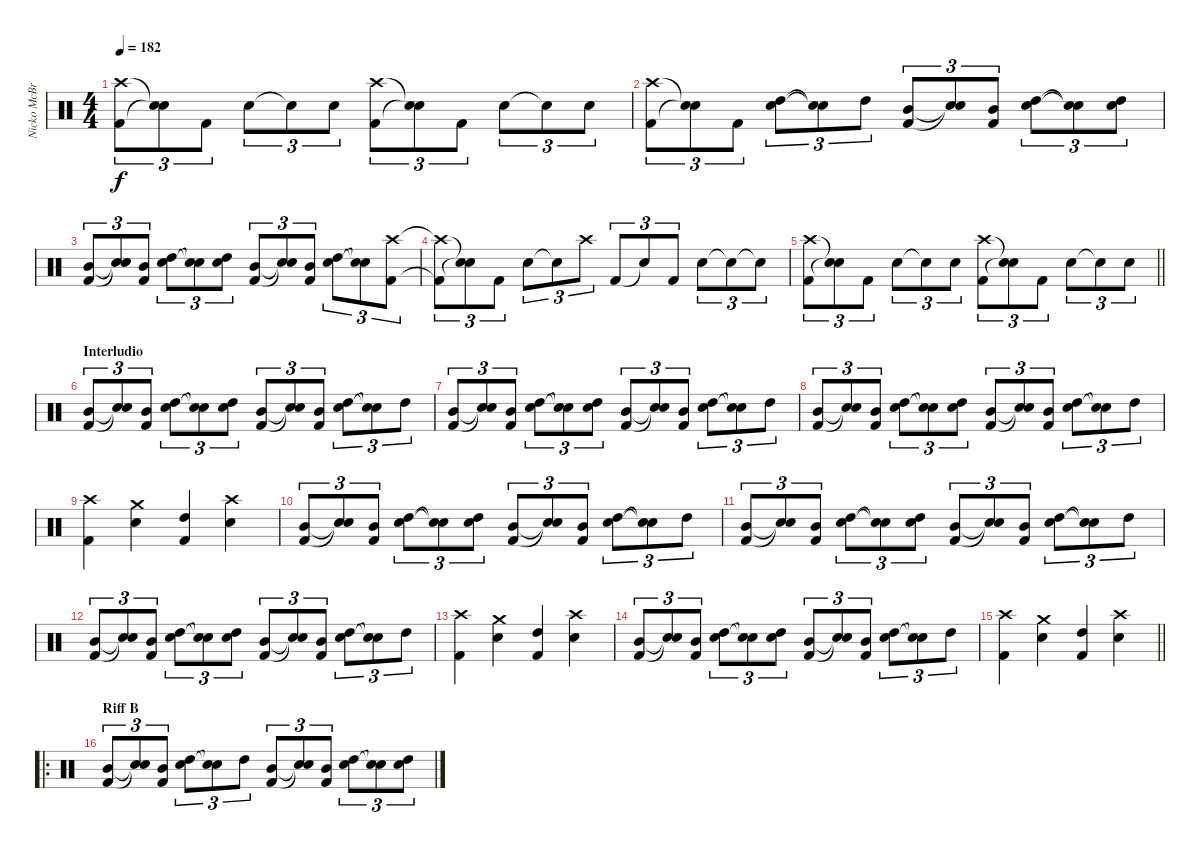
\track ("Nicko McBrain" "Nicko McBr") {instrument percussion}
\staff {score}
\articulation defaults
\ts (4 4)
\tempo 182
\clef neutral
\ks c
("Kick (hit) 2" "Crash high (hit)").8{tu (3 2) dy f} ("Snare (hit)"{t} "Snare (hit)"{t}).8{tu (3 2)} "Kick (hit) 2".8{tu (3 2)} "Snare (hit) 2".8{tu (3 2)} "Snare (hit)"{t}.8{tu (3 2)} "Snare (hit) 2".8{tu (3 2)} ("Kick (hit) 2" "Crash high (hit)").8{tu (3 2)} ("Snare (hit)"{t} "Snare (hit)"{t}).8{tu (3 2)} "Kick (hit) 2".8{tu (3 2)} "Snare (hit) 2".8{tu (3 2)} "Snare (hit)"{t}.8{tu (3 2)} "Snare (hit) 2".8{tu (3 2)} |
("Kick (hit) 2" "Crash high (hit)").8{tu (3 2)} ("Snare (hit)"{t} "Snare (hit)"{t}).8{tu (3 2)} "Kick (hit) 2".8{tu (3 2)} ("High Tom (hit)" "Snare (hit) 2").8{tu (3 2)} ("Snare (hit)"{t} "Snare (hit)"{t}).8{tu (3 2)} "High Tom (hit)".8{tu (3 2)} ("Mid Tom (hit)" "Kick (hit) 2").8{tu (3 2)} ("Snare (hit)"{t} "Snare (hit)"{t}).8{tu (3 2)} ("Mid Tom (hit)" "Kick (hit) 2").8{tu (3 2)} ("High Tom (hit)" "Snare (hit) 2").8{tu (3 2)} ("Snare (hit)"{t} "Snare (hit)"{t}).8{tu (3 2)} ("High Tom (hit)" "Snare (hit) 2").8{tu (3 2)} |
("Mid Tom (hit)" "Kick (hit) 2").8{tu (3 2)} ("Snare (hit)"{t} "Snare (hit)"{t}).8{tu (3 2)} ("Mid Tom (hit)" "Kick (hit) 2").8{tu (3 2)} ("High Tom (hit)" "Snare (hit) 2").8{tu (3 2)} ("Snare (hit)"{t} "Snare (hit)"{t}).8{tu (3 2)} ("High Tom (hit)" "Snare (hit) 2").8{tu (3 2)} ("Mid Tom (hit)" "Kick (hit) 2").8{tu (3 2)} ("Snare (hit)"{t} "Snare (hit)"{t}).8{tu (3 2)} ("Mid Tom (hit)" "Kick (hit) 2").8{tu (3 2)} ("High Tom (hit)" "Snare (hit) 2").8{tu (3 2)} ("Snare (hit)"{t} "Snare (hit)"{t}).8{tu (3 2)} ("Kick (hit) 2" "Crash high (hit)").8{tu (3 2)} |
("Kick (hit) 2"{t} "Crash high (hit)"{t}).8{tu (3 2)} ("Snare (hit)"{t} "Snare (hit)"{t}).8{tu (3 2)} "Kick (hit) 2".8{tu (3 2)} "Snare (hit) 2".8{tu (3 2)} "Snare (hit)"{t}.8{tu (3 2)} "Crash high (hit)".8{tu (3 2)} "Kick (hit) 2".8{tu (3 2)} "Snare (hit)"{t}.8{tu (3 2)} "Kick (hit) 2".8{tu (3 2)} "Snare (hit) 2".8{tu (3 2)} "Snare (hit)"{t}.8{tu (3 2)} "Snare (hit)"{t}.8{tu (3 2)} |
\barLineRight lightlight
("Kick (hit) 2" "Crash high (hit)").8{tu (3 2)} ("Snare (hit)"{t} "Snare (hit)"{t}).8{tu (3 2)} "Kick (hit) 2".8{tu (3 2)} "Snare (hit) 2".8{tu (3 2)} "Snare (hit)"{t}.8{tu (3 2)} "Snare (hit) 2".8{tu (3 2)} ("Kick (hit) 2" "Crash high (hit)").8{tu (3 2)} ("Snare (hit)"{t} "Snare (hit)"{t}).8{tu (3 2)} "Kick (hit) 2".8{tu (3 2)} "Snare (hit) 2".8{tu (3 2)} "Snare (hit)"{t}.8{tu (3 2)} "Snare (hit) 2".8{tu (3 2)} |
\section ("" "Interludio")
("Mid Tom (hit)" "Kick (hit) 2").8{tu (3 2)} ("Snare (hit)"{t} "Snare (hit)"{t}).8{tu (3 2)} ("Mid Tom (hit)" "Kick (hit) 2").8{tu (3 2)} ("High Tom (hit)" "Snare (hit) 2").8{tu (3 2)} ("Snare (hit)"{t} "Snare (hit)"{t}).8{tu (3 2)} ("High Tom (hit)" "Snare (hit) 2").8{tu (3 2)} ("Mid Tom (hit)" "Kick (hit) 2").8{tu (3 2)} ("Snare (hit)"{t} "Snare (hit)"{t}).8{tu (3 2)} ("Mid Tom (hit)" "Kick (hit) 2").8{tu (3 2)} ("High Tom (hit)" "Snare (hit) 2").8{tu (3 2)} ("Snare (hit)"{t} "Snare (hit)"{t}).8{tu (3 2)} "High Tom (hit)".8{tu (3 2)} |
("Mid Tom (hit)" "Kick (hit) 2").8{tu (3 2)} ("Snare (hit)"{t} "Snare (hit)"{t}).8{tu (3 2)} ("Mid Tom (hit)" "Kick (hit) 2").8{tu (3 2)} ("High Tom (hit)" "Snare (hit) 2").8{tu (3 2)} ("Snare (hit)"{t} "Snare (hit)"{t}).8{tu (3 2)} ("High Tom (hit)" "Snare (hit) 2").8{tu (3 2)} ("Mid Tom (hit)" "Kick (hit) 2").8{tu (3 2)} ("Snare (hit)"{t} "Snare (hit)"{t}).8{tu (3 2)} ("Mid Tom (hit)" "Kick (hit) 2").8{tu (3 2)} ("High Tom (hit)" "Snare (hit) 2").8{tu (3 2)} ("Snare (hit)"{t} "Snare (hit)"{t}).8{tu (3 2)} "High Tom (hit)".8{tu (3 2)} |
("Mid Tom (hit)" "Kick (hit) 2").8{tu (3 2)} ("Snare (hit)"{t} "Snare (hit)"{t}).8{tu (3 2)} ("Mid Tom (hit)" "Kick (hit) 2").8{tu (3 2)} ("High Tom (hit)" "Snare (hit) 2").8{tu (3 2)} ("Snare (hit)"{t} "Snare (hit)"{t}).8{tu (3 2)} ("High Tom (hit)" "Snare (hit) 2").8{tu (3 2)} ("Mid Tom (hit)" "Kick (hit) 2").8{tu (3 2)} ("Snare (hit)"{t} "Snare (hit)"{t}).8{tu (3 2)} ("Mid Tom (hit)" "Kick (hit) 2").8{tu (3 2)} ("High Tom (hit)" "Snare (hit) 2").8{tu (3 2)} ("Snare (hit)"{t} "Snare (hit)"{t}).8{tu (3 2)} "High Tom (hit)".8{tu (3 2)} |
("Kick (hit) 2" "Crash high (hit)").4 ("Snare (hit) 2" "Crash medium (hit)").4 ("High Tom (hit)" "Kick (hit) 2").4 ("Snare (hit) 2" "Crash high (hit)").4 |
("Mid Tom (hit)" "Kick (hit) 2").8{tu (3 2)} ("Snare (hit)"{t} "Snare (hit)"{t}).8{tu (3 2)} ("Mid Tom (hit)" "Kick (hit) 2").8{tu (3 2)} ("High Tom (hit)" "Snare (hit) 2").8{tu (3 2)} ("Snare (hit)"{t} "Snare (hit)"{t}).8{tu (3 2)} ("High Tom (hit)" "Snare (hit) 2").8{tu (3 2)} ("Mid Tom (hit)" "Kick (hit) 2").8{tu (3 2)} ("Snare (hit)"{t} "Snare (hit)"{t}).8{tu (3 2)} ("Mid Tom (hit)" "Kick (hit) 2").8{tu (3 2)} ("High Tom (hit)" "Snare (hit) 2").8{tu (3 2)} ("Snare (hit)"{t} "Snare (hit)"{t}).8{tu (3 2)} "High Tom (hit)".8{tu (3 2)} |
("Mid Tom (hit)" "Kick (hit) 2").8{tu (3 2)} ("Snare (hit)"{t} "Snare (hit)"{t}).8{tu (3 2)} ("Mid Tom (hit)" "Kick (hit) 2").8{tu (3 2)} ("High Tom (hit)" "Snare (hit) 2").8{tu (3 2)} ("Snare (hit)"{t} "Snare (hit)"{t}).8{tu (3 2)} ("High Tom (hit)" "Snare (hit) 2").8{tu (3 2)} ("Mid Tom (hit)" "Kick (hit) 2").8{tu (3 2)} ("Snare (hit)"{t} "Snare (hit)"{t}).8{tu (3 2)} ("Mid Tom (hit)" "Kick (hit) 2").8{tu (3 2)} ("High Tom (hit)" "Snare (hit) 2").8{tu (3 2)} ("Snare (hit)"{t} "Snare (hit)"{t}).8{tu (3 2)} "High Tom (hit)".8{tu (3 2)} |
("Mid Tom (hit)" "Kick (hit) 2").8{tu (3 2)} ("Snare (hit)"{t} "Snare (hit)"{t}).8{tu (3 2)} ("Mid Tom (hit)" "Kick (hit) 2").8{tu (3 2)} ("High Tom (hit)" "Snare (hit) 2").8{tu (3 2)} ("Snare (hit)"{t} "Snare (hit)"{t}).8{tu (3 2)} ("High Tom (hit)" "Snare (hit) 2").8{tu (3 2)} ("Mid Tom (hit)" "Kick (hit) 2").8{tu (3 2)} ("Snare (hit)"{t} "Snare (hit)"{t}).8{tu (3 2)} ("Mid Tom (hit)" "Kick (hit) 2").8{tu (3 2)} ("High Tom (hit)" "Snare (hit) 2").8{tu (3 2)} ("Snare (hit)"{t} "Snare (hit)"{t}).8{tu (3 2)} "High Tom (hit)".8{tu (3 2)} |
("Kick (hit) 2" "Crash high (hit)").4 ("Snare (hit) 2" "Crash medium (hit)").4 ("High Tom (hit)" "Kick (hit) 2").4 ("Snare (hit) 2" "Crash high (hit)").4 |
("Mid Tom (hit)" "Kick (hit) 2").8{tu (3 2)} ("Snare (hit)"{t} "Snare (hit)"{t}).8{tu (3 2)} ("Mid Tom (hit)" "Kick (hit) 2").8{tu (3 2)} ("High Tom (hit)" "Snare (hit) 2").8{tu (3 2)} ("Snare (hit)"{t} "Snare (hit)"{t}).8{tu (3 2)} ("High Tom (hit)" "Snare (hit) 2").8{tu (3 2)} ("Mid Tom (hit)" "Kick (hit) 2").8{tu (3 2)} ("Snare (hit)"{t} "Snare (hit)"{t}).8{tu (3 2)} ("Mid Tom (hit)" "Kick (hit) 2").8{tu (3 2)} ("High Tom (hit)" "Snare (hit) 2").8{tu (3 2)} ("Snare (hit)"{t} "Snare (hit)"{t}).8{tu (3 2)} "High Tom (hit)".8{tu (3 2)} |
\barLineRight lightlight
("Kick (hit) 2" "Crash high (hit)").4 ("Snare (hit) 2" "Crash medium (hit)").4 ("High Tom (hit)" "Kick (hit) 2").4 ("Snare (hit) 2" "Crash high (hit)").4 |
\ro
\section ("" "Riff B")
("Mid Tom (hit)" "Kick (hit) 2").8{tu (3 2)} ("Snare (hit)"{t} "Snare (hit)"{t}).8{tu (3 2)} ("Mid Tom (hit)" "Kick (hit) 2").8{tu (3 2)} ("High Tom (hit)" "Snare (hit) 2").8{tu (3 2)} ("Snare (hit)"{t} "Snare (hit)"{t}).8{tu (3 2)} "High Tom (hit)".8{tu (3 2)} ("Mid Tom (hit)" "Kick (hit) 2").8{tu (3 2)} ("Snare (hit)"{t} "Snare (hit)"{t}).8{tu (3 2)} ("Mid Tom (hit)" "Kick (hit) 2").8{tu (3 2)} ("High Tom (hit)" "Snare (hit) 2").8{tu (3 2)} ("Snare (hit)"{t} "Snare (hit)"{t}).8{tu (3 2)} ("High Tom (hit)" "Snare (hit) 2").8{tu (3 2)}
